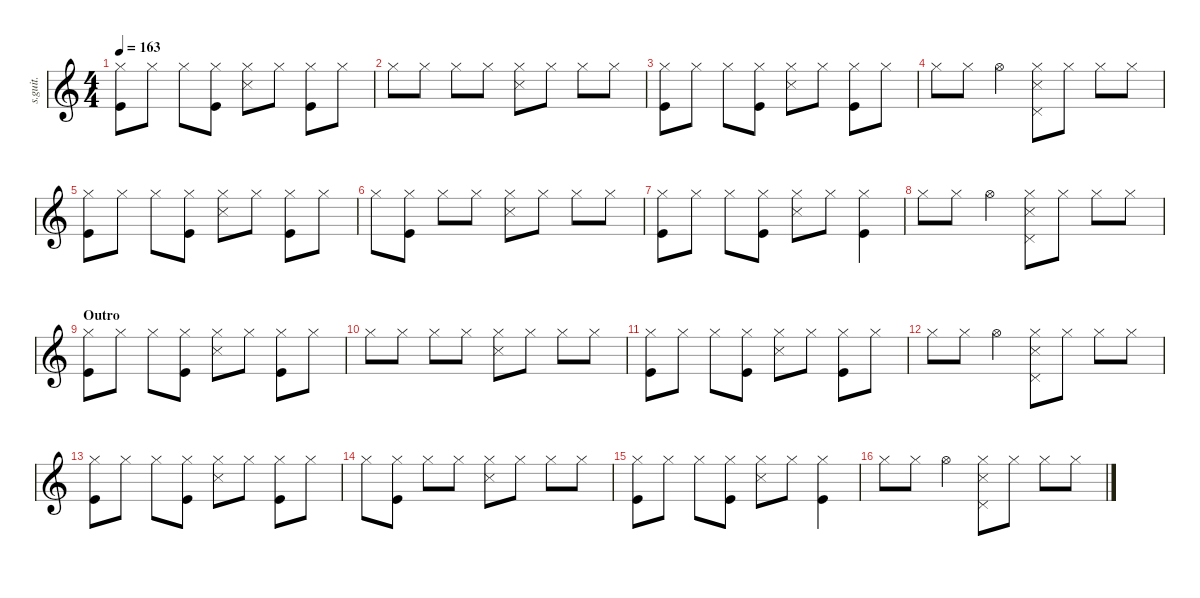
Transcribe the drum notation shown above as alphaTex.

\defaultSystemsLayout 4
\hideDynamics
\bracketExtendMode nobrackets
\track ("John Dolmayan" "s.guit.") {instrument percussion}
\staff {score}
\articulation defaults
\ts (4 4)
\tempo 163
\clef g2
\ks c
("Hi-Hat (closed)" "Kick (hit)").8{lyrics (0 "") lyrics (1 "") lyrics (2 "") lyrics (3 "") lyrics (4 "") dy f} "Hi-Hat (closed)".8{lyrics (0 "") lyrics (1 "") lyrics (2 "") lyrics (3 "") lyrics (4 "")} "Hi-Hat (closed)".8{lyrics (0 "") lyrics (1 "") lyrics (2 "") lyrics (3 "") lyrics (4 "")} ("Hi-Hat (closed)" "Kick (hit)").8{lyrics (0 "") lyrics (1 "") lyrics (2 "") lyrics (3 "") lyrics (4 "")} ("Hi-Hat (closed)" "Snare (side stick) 3").8{lyrics (0 "") lyrics (1 "") lyrics (2 "") lyrics (3 "") lyrics (4 "")} "Hi-Hat (closed)".8{lyrics (0 "") lyrics (1 "") lyrics (2 "") lyrics (3 "") lyrics (4 "")} ("Hi-Hat (closed)" "Kick (hit)").8{lyrics (0 "") lyrics (1 "") lyrics (2 "") lyrics (3 "") lyrics (4 "")} "Hi-Hat (closed)".8{lyrics (0 "") lyrics (1 "") lyrics (2 "") lyrics (3 "") lyrics (4 "")} |
"Hi-Hat (closed)".8{lyrics (0 "") lyrics (1 "") lyrics (2 "") lyrics (3 "") lyrics (4 "")} "Hi-Hat (closed)".8{lyrics (0 "") lyrics (1 "") lyrics (2 "") lyrics (3 "") lyrics (4 "")} "Hi-Hat (closed)".8{lyrics (0 "") lyrics (1 "") lyrics (2 "") lyrics (3 "") lyrics (4 "")} "Hi-Hat (closed)".8{lyrics (0 "") lyrics (1 "") lyrics (2 "") lyrics (3 "") lyrics (4 "")} ("Hi-Hat (closed)" "Snare (side stick) 3").8{lyrics (0 "") lyrics (1 "") lyrics (2 "") lyrics (3 "") lyrics (4 "")} "Hi-Hat (closed)".8{lyrics (0 "") lyrics (1 "") lyrics (2 "") lyrics (3 "") lyrics (4 "")} "Hi-Hat (closed)".8{lyrics (0 "") lyrics (1 "") lyrics (2 "") lyrics (3 "") lyrics (4 "")} "Hi-Hat (closed)".8{lyrics (0 "") lyrics (1 "") lyrics (2 "") lyrics (3 "") lyrics (4 "")} |
("Hi-Hat (closed)" "Kick (hit)").8{lyrics (0 "") lyrics (1 "") lyrics (2 "") lyrics (3 "") lyrics (4 "")} "Hi-Hat (closed)".8{lyrics (0 "") lyrics (1 "") lyrics (2 "") lyrics (3 "") lyrics (4 "")} "Hi-Hat (closed)".8{lyrics (0 "") lyrics (1 "") lyrics (2 "") lyrics (3 "") lyrics (4 "")} ("Hi-Hat (closed)" "Kick (hit)").8{lyrics (0 "") lyrics (1 "") lyrics (2 "") lyrics (3 "") lyrics (4 "")} ("Hi-Hat (closed)" "Snare (side stick) 3").8{lyrics (0 "") lyrics (1 "") lyrics (2 "") lyrics (3 "") lyrics (4 "")} "Hi-Hat (closed)".8{lyrics (0 "") lyrics (1 "") lyrics (2 "") lyrics (3 "") lyrics (4 "")} ("Hi-Hat (closed)" "Kick (hit)").8{lyrics (0 "") lyrics (1 "") lyrics (2 "") lyrics (3 "") lyrics (4 "")} "Hi-Hat (closed)".8{lyrics (0 "") lyrics (1 "") lyrics (2 "") lyrics (3 "") lyrics (4 "")} |
"Hi-Hat (closed)".8{lyrics (0 "") lyrics (1 "") lyrics (2 "") lyrics (3 "") lyrics (4 "")} "Hi-Hat (closed)".8{lyrics (0 "") lyrics (1 "") lyrics (2 "") lyrics (3 "") lyrics (4 "")} "Hi-Hat (open)".4{lyrics (0 "") lyrics (1 "") lyrics (2 "") lyrics (3 "") lyrics (4 "")} ("Hi-Hat (closed)" "Pedal Hi-Hat (hit)" "Snare (side stick) 3").8{lyrics (0 "") lyrics (1 "") lyrics (2 "") lyrics (3 "") lyrics (4 "")} "Hi-Hat (closed)".8{lyrics (0 "") lyrics (1 "") lyrics (2 "") lyrics (3 "") lyrics (4 "")} "Hi-Hat (closed)".8{lyrics (0 "") lyrics (1 "") lyrics (2 "") lyrics (3 "") lyrics (4 "")} "Hi-Hat (closed)".8{lyrics (0 "") lyrics (1 "") lyrics (2 "") lyrics (3 "") lyrics (4 "")} |
("Hi-Hat (closed)" "Kick (hit)").8{lyrics (0 "") lyrics (1 "") lyrics (2 "") lyrics (3 "") lyrics (4 "")} "Hi-Hat (closed)".8{lyrics (0 "") lyrics (1 "") lyrics (2 "") lyrics (3 "") lyrics (4 "")} "Hi-Hat (closed)".8{lyrics (0 "") lyrics (1 "") lyrics (2 "") lyrics (3 "") lyrics (4 "")} ("Hi-Hat (closed)" "Kick (hit)").8{lyrics (0 "") lyrics (1 "") lyrics (2 "") lyrics (3 "") lyrics (4 "")} ("Hi-Hat (closed)" "Snare (side stick) 3").8{lyrics (0 "") lyrics (1 "") lyrics (2 "") lyrics (3 "") lyrics (4 "")} "Hi-Hat (closed)".8{lyrics (0 "") lyrics (1 "") lyrics (2 "") lyrics (3 "") lyrics (4 "")} ("Hi-Hat (closed)" "Kick (hit)").8{lyrics (0 "") lyrics (1 "") lyrics (2 "") lyrics (3 "") lyrics (4 "")} "Hi-Hat (closed)".8{lyrics (0 "") lyrics (1 "") lyrics (2 "") lyrics (3 "") lyrics (4 "")} |
"Hi-Hat (closed)".8{lyrics (0 "") lyrics (1 "") lyrics (2 "") lyrics (3 "") lyrics (4 "")} ("Hi-Hat (closed)" "Kick (hit)").8{lyrics (0 "") lyrics (1 "") lyrics (2 "") lyrics (3 "") lyrics (4 "")} "Hi-Hat (closed)".8{lyrics (0 "") lyrics (1 "") lyrics (2 "") lyrics (3 "") lyrics (4 "")} "Hi-Hat (closed)".8{lyrics (0 "") lyrics (1 "") lyrics (2 "") lyrics (3 "") lyrics (4 "")} ("Hi-Hat (closed)" "Snare (side stick) 3").8{lyrics (0 "") lyrics (1 "") lyrics (2 "") lyrics (3 "") lyrics (4 "")} "Hi-Hat (closed)".8{lyrics (0 "") lyrics (1 "") lyrics (2 "") lyrics (3 "") lyrics (4 "")} "Hi-Hat (closed)".8{lyrics (0 "") lyrics (1 "") lyrics (2 "") lyrics (3 "") lyrics (4 "")} "Hi-Hat (closed)".8{lyrics (0 "") lyrics (1 "") lyrics (2 "") lyrics (3 "") lyrics (4 "")} |
("Hi-Hat (closed)" "Kick (hit)").8{lyrics (0 "") lyrics (1 "") lyrics (2 "") lyrics (3 "") lyrics (4 "")} "Hi-Hat (closed)".8{lyrics (0 "") lyrics (1 "") lyrics (2 "") lyrics (3 "") lyrics (4 "")} "Hi-Hat (closed)".8{lyrics (0 "") lyrics (1 "") lyrics (2 "") lyrics (3 "") lyrics (4 "")} ("Hi-Hat (closed)" "Kick (hit)").8{lyrics (0 "") lyrics (1 "") lyrics (2 "") lyrics (3 "") lyrics (4 "")} ("Hi-Hat (closed)" "Snare (side stick) 3").8{lyrics (0 "") lyrics (1 "") lyrics (2 "") lyrics (3 "") lyrics (4 "")} "Hi-Hat (closed)".8{lyrics (0 "") lyrics (1 "") lyrics (2 "") lyrics (3 "") lyrics (4 "")} ("Hi-Hat (closed)" "Kick (hit)").4{lyrics (0 "") lyrics (1 "") lyrics (2 "") lyrics (3 "") lyrics (4 "")} |
"Hi-Hat (closed)".8{lyrics (0 "") lyrics (1 "") lyrics (2 "") lyrics (3 "") lyrics (4 "")} "Hi-Hat (closed)".8{lyrics (0 "") lyrics (1 "") lyrics (2 "") lyrics (3 "") lyrics (4 "")} "Hi-Hat (open)".4{lyrics (0 "") lyrics (1 "") lyrics (2 "") lyrics (3 "") lyrics (4 "")} ("Hi-Hat (closed)" "Pedal Hi-Hat (hit)" "Snare (side stick) 3").8{lyrics (0 "") lyrics (1 "") lyrics (2 "") lyrics (3 "") lyrics (4 "")} "Hi-Hat (closed)".8{lyrics (0 "") lyrics (1 "") lyrics (2 "") lyrics (3 "") lyrics (4 "")} "Hi-Hat (closed)".8{lyrics (0 "") lyrics (1 "") lyrics (2 "") lyrics (3 "") lyrics (4 "")} "Hi-Hat (closed)".8{lyrics (0 "") lyrics (1 "") lyrics (2 "") lyrics (3 "") lyrics (4 "")} |
\section ("" "Outro")
("Hi-Hat (closed)" "Kick (hit)").8{lyrics (0 "") lyrics (1 "") lyrics (2 "") lyrics (3 "") lyrics (4 "")} "Hi-Hat (closed)".8{lyrics (0 "") lyrics (1 "") lyrics (2 "") lyrics (3 "") lyrics (4 "")} "Hi-Hat (closed)".8{lyrics (0 "") lyrics (1 "") lyrics (2 "") lyrics (3 "") lyrics (4 "")} ("Hi-Hat (closed)" "Kick (hit)").8{lyrics (0 "") lyrics (1 "") lyrics (2 "") lyrics (3 "") lyrics (4 "")} ("Hi-Hat (closed)" "Snare (side stick) 3").8{lyrics (0 "") lyrics (1 "") lyrics (2 "") lyrics (3 "") lyrics (4 "")} "Hi-Hat (closed)".8{lyrics (0 "") lyrics (1 "") lyrics (2 "") lyrics (3 "") lyrics (4 "")} ("Hi-Hat (closed)" "Kick (hit)").8{lyrics (0 "") lyrics (1 "") lyrics (2 "") lyrics (3 "") lyrics (4 "")} "Hi-Hat (closed)".8{lyrics (0 "") lyrics (1 "") lyrics (2 "") lyrics (3 "") lyrics (4 "")} |
"Hi-Hat (closed)".8{lyrics (0 "") lyrics (1 "") lyrics (2 "") lyrics (3 "") lyrics (4 "")} "Hi-Hat (closed)".8{lyrics (0 "") lyrics (1 "") lyrics (2 "") lyrics (3 "") lyrics (4 "")} "Hi-Hat (closed)".8{lyrics (0 "") lyrics (1 "") lyrics (2 "") lyrics (3 "") lyrics (4 "")} "Hi-Hat (closed)".8{lyrics (0 "") lyrics (1 "") lyrics (2 "") lyrics (3 "") lyrics (4 "")} ("Hi-Hat (closed)" "Snare (side stick) 3").8{lyrics (0 "") lyrics (1 "") lyrics (2 "") lyrics (3 "") lyrics (4 "")} "Hi-Hat (closed)".8{lyrics (0 "") lyrics (1 "") lyrics (2 "") lyrics (3 "") lyrics (4 "")} "Hi-Hat (closed)".8{lyrics (0 "") lyrics (1 "") lyrics (2 "") lyrics (3 "") lyrics (4 "")} "Hi-Hat (closed)".8{lyrics (0 "") lyrics (1 "") lyrics (2 "") lyrics (3 "") lyrics (4 "")} |
("Hi-Hat (closed)" "Kick (hit)").8{lyrics (0 "") lyrics (1 "") lyrics (2 "") lyrics (3 "") lyrics (4 "")} "Hi-Hat (closed)".8{lyrics (0 "") lyrics (1 "") lyrics (2 "") lyrics (3 "") lyrics (4 "")} "Hi-Hat (closed)".8{lyrics (0 "") lyrics (1 "") lyrics (2 "") lyrics (3 "") lyrics (4 "")} ("Hi-Hat (closed)" "Kick (hit)").8{lyrics (0 "") lyrics (1 "") lyrics (2 "") lyrics (3 "") lyrics (4 "")} ("Hi-Hat (closed)" "Snare (side stick) 3").8{lyrics (0 "") lyrics (1 "") lyrics (2 "") lyrics (3 "") lyrics (4 "")} "Hi-Hat (closed)".8{lyrics (0 "") lyrics (1 "") lyrics (2 "") lyrics (3 "") lyrics (4 "")} ("Hi-Hat (closed)" "Kick (hit)").8{lyrics (0 "") lyrics (1 "") lyrics (2 "") lyrics (3 "") lyrics (4 "")} "Hi-Hat (closed)".8{lyrics (0 "") lyrics (1 "") lyrics (2 "") lyrics (3 "") lyrics (4 "")} |
"Hi-Hat (closed)".8{lyrics (0 "") lyrics (1 "") lyrics (2 "") lyrics (3 "") lyrics (4 "")} "Hi-Hat (closed)".8{lyrics (0 "") lyrics (1 "") lyrics (2 "") lyrics (3 "") lyrics (4 "")} "Hi-Hat (open)".4{lyrics (0 "") lyrics (1 "") lyrics (2 "") lyrics (3 "") lyrics (4 "")} ("Hi-Hat (closed)" "Pedal Hi-Hat (hit)" "Snare (side stick) 3").8{lyrics (0 "") lyrics (1 "") lyrics (2 "") lyrics (3 "") lyrics (4 "")} "Hi-Hat (closed)".8{lyrics (0 "") lyrics (1 "") lyrics (2 "") lyrics (3 "") lyrics (4 "")} "Hi-Hat (closed)".8{lyrics (0 "") lyrics (1 "") lyrics (2 "") lyrics (3 "") lyrics (4 "")} "Hi-Hat (closed)".8{lyrics (0 "") lyrics (1 "") lyrics (2 "") lyrics (3 "") lyrics (4 "")} |
("Hi-Hat (closed)" "Kick (hit)").8{lyrics (0 "") lyrics (1 "") lyrics (2 "") lyrics (3 "") lyrics (4 "")} "Hi-Hat (closed)".8{lyrics (0 "") lyrics (1 "") lyrics (2 "") lyrics (3 "") lyrics (4 "")} "Hi-Hat (closed)".8{lyrics (0 "") lyrics (1 "") lyrics (2 "") lyrics (3 "") lyrics (4 "")} ("Hi-Hat (closed)" "Kick (hit)").8{lyrics (0 "") lyrics (1 "") lyrics (2 "") lyrics (3 "") lyrics (4 "")} ("Hi-Hat (closed)" "Snare (side stick) 3").8{lyrics (0 "") lyrics (1 "") lyrics (2 "") lyrics (3 "") lyrics (4 "")} "Hi-Hat (closed)".8{lyrics (0 "") lyrics (1 "") lyrics (2 "") lyrics (3 "") lyrics (4 "")} ("Hi-Hat (closed)" "Kick (hit)").8{lyrics (0 "") lyrics (1 "") lyrics (2 "") lyrics (3 "") lyrics (4 "")} "Hi-Hat (closed)".8{lyrics (0 "") lyrics (1 "") lyrics (2 "") lyrics (3 "") lyrics (4 "")} |
"Hi-Hat (closed)".8{lyrics (0 "") lyrics (1 "") lyrics (2 "") lyrics (3 "") lyrics (4 "")} ("Hi-Hat (closed)" "Kick (hit)").8{lyrics (0 "") lyrics (1 "") lyrics (2 "") lyrics (3 "") lyrics (4 "")} "Hi-Hat (closed)".8{lyrics (0 "") lyrics (1 "") lyrics (2 "") lyrics (3 "") lyrics (4 "")} "Hi-Hat (closed)".8{lyrics (0 "") lyrics (1 "") lyrics (2 "") lyrics (3 "") lyrics (4 "")} ("Hi-Hat (closed)" "Snare (side stick) 3").8{lyrics (0 "") lyrics (1 "") lyrics (2 "") lyrics (3 "") lyrics (4 "")} "Hi-Hat (closed)".8{lyrics (0 "") lyrics (1 "") lyrics (2 "") lyrics (3 "") lyrics (4 "")} "Hi-Hat (closed)".8{lyrics (0 "") lyrics (1 "") lyrics (2 "") lyrics (3 "") lyrics (4 "")} "Hi-Hat (closed)".8{lyrics (0 "") lyrics (1 "") lyrics (2 "") lyrics (3 "") lyrics (4 "")} |
("Hi-Hat (closed)" "Kick (hit)").8{lyrics (0 "") lyrics (1 "") lyrics (2 "") lyrics (3 "") lyrics (4 "")} "Hi-Hat (closed)".8{lyrics (0 "") lyrics (1 "") lyrics (2 "") lyrics (3 "") lyrics (4 "")} "Hi-Hat (closed)".8{lyrics (0 "") lyrics (1 "") lyrics (2 "") lyrics (3 "") lyrics (4 "")} ("Hi-Hat (closed)" "Kick (hit)").8{lyrics (0 "") lyrics (1 "") lyrics (2 "") lyrics (3 "") lyrics (4 "")} ("Hi-Hat (closed)" "Snare (side stick) 3").8{lyrics (0 "") lyrics (1 "") lyrics (2 "") lyrics (3 "") lyrics (4 "")} "Hi-Hat (closed)".8{lyrics (0 "") lyrics (1 "") lyrics (2 "") lyrics (3 "") lyrics (4 "")} ("Hi-Hat (closed)" "Kick (hit)").4{lyrics (0 "") lyrics (1 "") lyrics (2 "") lyrics (3 "") lyrics (4 "")} |
"Hi-Hat (closed)".8{lyrics (0 "") lyrics (1 "") lyrics (2 "") lyrics (3 "") lyrics (4 "")} "Hi-Hat (closed)".8{lyrics (0 "") lyrics (1 "") lyrics (2 "") lyrics (3 "") lyrics (4 "")} "Hi-Hat (open)".4{lyrics (0 "") lyrics (1 "") lyrics (2 "") lyrics (3 "") lyrics (4 "")} ("Hi-Hat (closed)" "Pedal Hi-Hat (hit)" "Snare (side stick) 3").8{lyrics (0 "") lyrics (1 "") lyrics (2 "") lyrics (3 "") lyrics (4 "")} "Hi-Hat (closed)".8{lyrics (0 "") lyrics (1 "") lyrics (2 "") lyrics (3 "") lyrics (4 "")} "Hi-Hat (closed)".8{lyrics (0 "") lyrics (1 "") lyrics (2 "") lyrics (3 "") lyrics (4 "")} "Hi-Hat (closed)".8{lyrics (0 "") lyrics (1 "") lyrics (2 "") lyrics (3 "") lyrics (4 "")}
